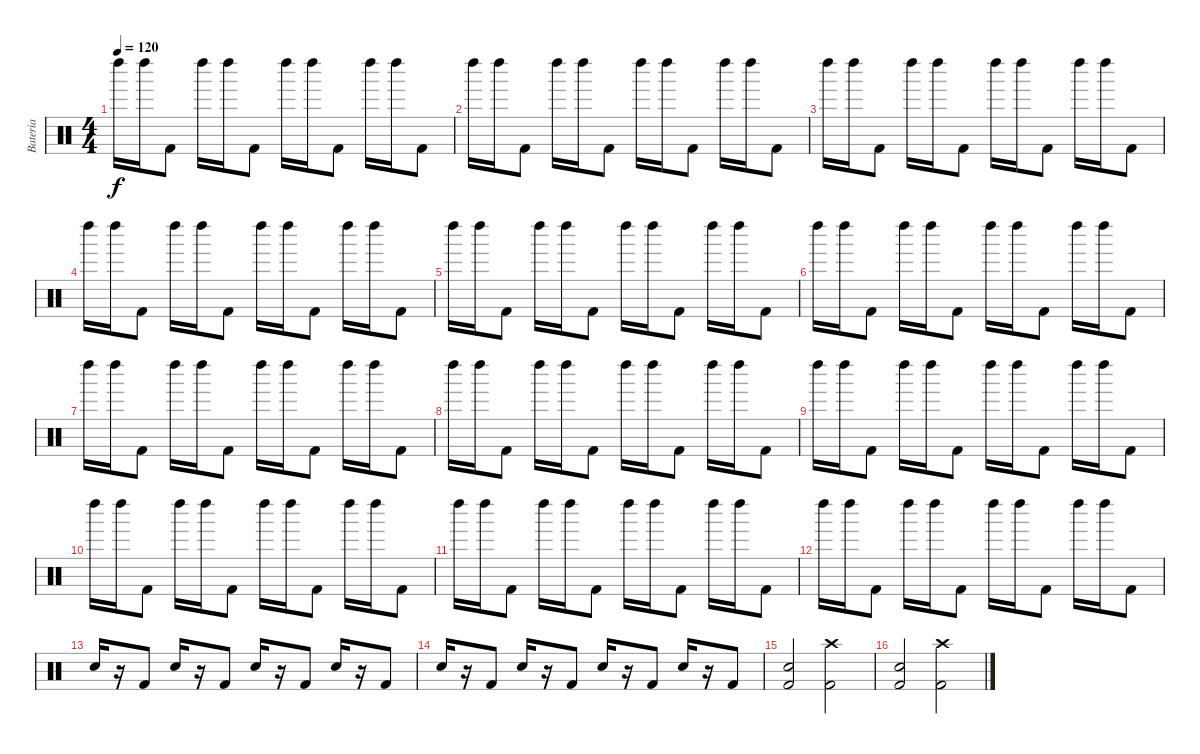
\track ("Bateria" "Bateria") {instrument percussion}
\staff {score}
\articulation defaults
\ts (4 4)
\tempo 120
\clef neutral
\ks c "Left Maraca (hit)".16{dy f} "Left Maraca (hit)".16 "Kick (hit) 2".8 "Left Maraca (hit)".16 "Left Maraca (hit)".16 "Kick (hit) 2".8 "Left Maraca (hit)".16 "Left Maraca (hit)".16 "Kick (hit) 2".8 "Left Maraca (hit)".16 "Left Maraca (hit)".16 "Kick (hit) 2".8
|
"Left Maraca (hit)".16 "Left Maraca (hit)".16 "Kick (hit) 2".8 "Left Maraca (hit)".16 "Left Maraca (hit)".16 "Kick (hit) 2".8 "Left Maraca (hit)".16 "Left Maraca (hit)".16 "Kick (hit) 2".8 "Left Maraca (hit)".16 "Left Maraca (hit)".16 "Kick (hit) 2".8 |
"Left Maraca (hit)".16 "Left Maraca (hit)".16 "Kick (hit) 2".8 "Left Maraca (hit)".16 "Left Maraca (hit)".16 "Kick (hit) 2".8 "Left Maraca (hit)".16 "Left Maraca (hit)".16 "Kick (hit) 2".8 "Left Maraca (hit)".16 "Left Maraca (hit)".16 "Kick (hit) 2".8 |
"Left Maraca (hit)".16 "Left Maraca (hit)".16 "Kick (hit) 2".8 "Left Maraca (hit)".16 "Left Maraca (hit)".16 "Kick (hit) 2".8 "Left Maraca (hit)".16 "Left Maraca (hit)".16 "Kick (hit) 2".8 "Left Maraca (hit)".16 "Left Maraca (hit)".16 "Kick (hit) 2".8 |
"Left Maraca (hit)".16 "Left Maraca (hit)".16 "Kick (hit) 2".8 "Left Maraca (hit)".16 "Left Maraca (hit)".16 "Kick (hit) 2".8 "Left Maraca (hit)".16 "Left Maraca (hit)".16 "Kick (hit) 2".8 "Left Maraca (hit)".16 "Left Maraca (hit)".16 "Kick (hit) 2".8 |
"Left Maraca (hit)".16 "Left Maraca (hit)".16 "Kick (hit) 2".8 "Left Maraca (hit)".16 "Left Maraca (hit)".16 "Kick (hit) 2".8 "Left Maraca (hit)".16 "Left Maraca (hit)".16 "Kick (hit) 2".8 "Left Maraca (hit)".16 "Left Maraca (hit)".16 "Kick (hit) 2".8 |
"Left Maraca (hit)".16 "Left Maraca (hit)".16 "Kick (hit) 2".8 "Left Maraca (hit)".16 "Left Maraca (hit)".16 "Kick (hit) 2".8 "Left Maraca (hit)".16 "Left Maraca (hit)".16 "Kick (hit) 2".8 "Left Maraca (hit)".16 "Left Maraca (hit)".16 "Kick (hit) 2".8 |
"Left Maraca (hit)".16 "Left Maraca (hit)".16 "Kick (hit) 2".8 "Left Maraca (hit)".16 "Left Maraca (hit)".16 "Kick (hit) 2".8 "Left Maraca (hit)".16 "Left Maraca (hit)".16 "Kick (hit) 2".8 "Left Maraca (hit)".16 "Left Maraca (hit)".16 "Kick (hit) 2".8 |
"Left Maraca (hit)".16 "Left Maraca (hit)".16 "Kick (hit) 2".8 "Left Maraca (hit)".16 "Left Maraca (hit)".16 "Kick (hit) 2".8 "Left Maraca (hit)".16 "Left Maraca (hit)".16 "Kick (hit) 2".8 "Left Maraca (hit)".16 "Left Maraca (hit)".16 "Kick (hit) 2".8 |
"Left Maraca (hit)".16 "Left Maraca (hit)".16 "Kick (hit) 2".8 "Left Maraca (hit)".16 "Left Maraca (hit)".16 "Kick (hit) 2".8 "Left Maraca (hit)".16 "Left Maraca (hit)".16 "Kick (hit) 2".8 "Left Maraca (hit)".16 "Left Maraca (hit)".16 "Kick (hit) 2".8 |
"Left Maraca (hit)".16 "Left Maraca (hit)".16 "Kick (hit) 2".8 "Left Maraca (hit)".16 "Left Maraca (hit)".16 "Kick (hit) 2".8 "Left Maraca (hit)".16 "Left Maraca (hit)".16 "Kick (hit) 2".8 "Left Maraca (hit)".16 "Left Maraca (hit)".16 "Kick (hit) 2".8 |
"Left Maraca (hit)".16 "Left Maraca (hit)".16 "Kick (hit) 2".8 "Left Maraca (hit)".16 "Left Maraca (hit)".16 "Kick (hit) 2".8 "Left Maraca (hit)".16 "Left Maraca (hit)".16 "Kick (hit) 2".8 "Left Maraca (hit)".16 "Left Maraca (hit)".16 "Kick (hit) 2".8 |
"Electric Snare (hit)".16 r.16 "Kick (hit) 2".8 "Electric Snare (hit)".16 r.16 "Kick (hit) 2".8 "Electric Snare (hit)".16 r.16 "Kick (hit) 2".8 "Electric Snare (hit)".16 r.16 "Kick (hit) 2".8 |
"Electric Snare (hit)".16 r.16 "Kick (hit) 2".8 "Electric Snare (hit)".16 r.16 "Kick (hit) 2".8 "Electric Snare (hit)".16 r.16 "Kick (hit) 2".8 "Electric Snare (hit)".16 r.16 "Kick (hit) 2".8 |
("Electric Snare (hit)" "Kick (hit) 2").2 ("Crash high (hit)" "Kick (hit) 2").2 |
("Electric Snare (hit)" "Kick (hit) 2").2 ("Crash high (hit)" "Kick (hit) 2").2
